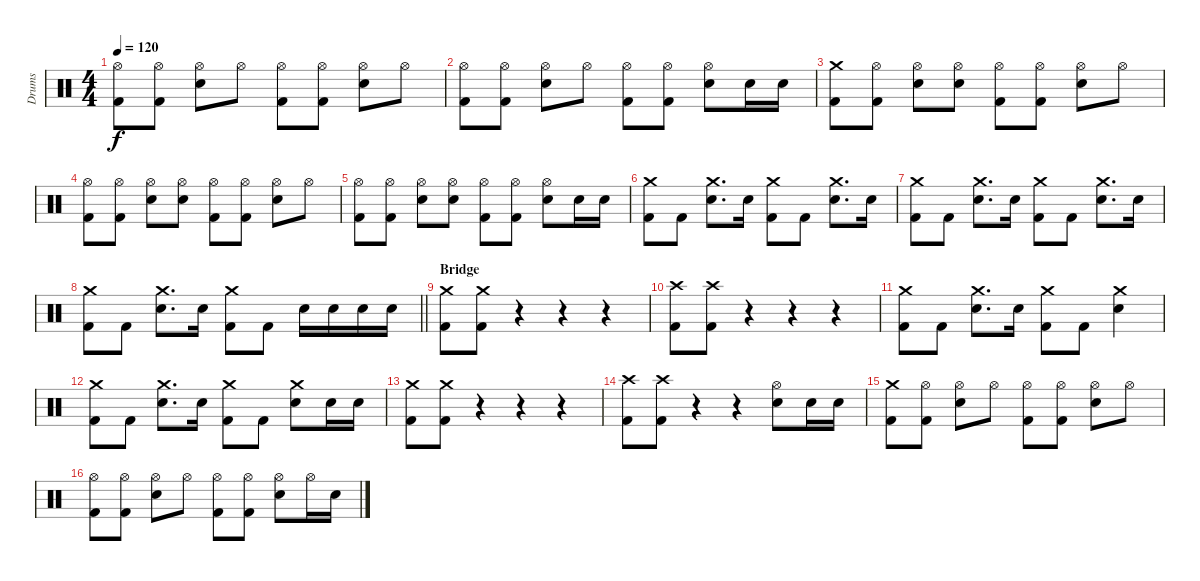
\track ("Drums" "Drums") {instrument percussion}
\staff {score}
\articulation defaults
\ts (4 4)
\tempo 120
\clef neutral
\ks c
("Hi-Hat (open)" "Kick (hit) 2").8{dy f} ("Hi-Hat (open)" "Kick (hit) 2").8 ("Hi-Hat (open)" "Electric Snare (hit)").8 "Hi-Hat (open)".8 ("Hi-Hat (open)" "Kick (hit) 2").8 ("Hi-Hat (open)" "Kick (hit) 2").8 ("Hi-Hat (open)" "Electric Snare (hit)").8 "Hi-Hat (open)".8 |
("Hi-Hat (open)" "Kick (hit) 2").8 ("Hi-Hat (open)" "Kick (hit) 2").8 ("Hi-Hat (open)" "Electric Snare (hit)").8 "Hi-Hat (open)".8 ("Hi-Hat (open)" "Kick (hit) 2").8 ("Hi-Hat (open)" "Kick (hit) 2").8 ("Hi-Hat (open)" "Electric Snare (hit)").8 "Electric Snare (hit)".16 "Electric Snare (hit)".16 |
("Crash medium (hit)" "Kick (hit) 2").8 ("Hi-Hat (open)" "Kick (hit) 2").8 ("Hi-Hat (open)" "Electric Snare (hit)").8 ("Hi-Hat (open)" "Electric Snare (hit)").8 ("Hi-Hat (open)" "Kick (hit) 2").8 ("Hi-Hat (open)" "Kick (hit) 2").8 ("Hi-Hat (open)" "Electric Snare (hit)").8 "Hi-Hat (open)".8 |
("Hi-Hat (open)" "Kick (hit) 2").8 ("Hi-Hat (open)" "Kick (hit) 2").8 ("Hi-Hat (open)" "Electric Snare (hit)").8 ("Hi-Hat (open)" "Electric Snare (hit)").8 ("Hi-Hat (open)" "Kick (hit) 2").8 ("Hi-Hat (open)" "Kick (hit) 2").8 ("Hi-Hat (open)" "Electric Snare (hit)").8 "Hi-Hat (open)".8 |
("Hi-Hat (open)" "Kick (hit) 2").8 ("Hi-Hat (open)" "Kick (hit) 2").8 ("Hi-Hat (open)" "Electric Snare (hit)").8 ("Hi-Hat (open)" "Electric Snare (hit)").8 ("Hi-Hat (open)" "Kick (hit) 2").8 ("Hi-Hat (open)" "Kick (hit) 2").8 ("Hi-Hat (open)" "Electric Snare (hit)").8 "Electric Snare (hit)".16 "Electric Snare (hit)".16 |
("Crash medium (hit)" "Kick (hit) 2").8 "Kick (hit) 2".8 ("Crash medium (hit)" "Electric Snare (hit)").8{d} "Electric Snare (hit)".16 ("Crash medium (hit)" "Kick (hit) 2").8 "Kick (hit) 2".8 ("Crash medium (hit)" "Electric Snare (hit)").8{d} "Electric Snare (hit)".16 |
("Crash medium (hit)" "Kick (hit) 2").8 "Kick (hit) 2".8 ("Crash medium (hit)" "Electric Snare (hit)").8{d} "Electric Snare (hit)".16 ("Crash medium (hit)" "Kick (hit) 2").8 "Kick (hit) 2".8 ("Crash medium (hit)" "Electric Snare (hit)").8{d} "Electric Snare (hit)".16 |
\barLineRight lightlight
("Crash medium (hit)" "Kick (hit) 2").8 "Kick (hit) 2".8 ("Crash medium (hit)" "Electric Snare (hit)").8{d} "Electric Snare (hit)".16 ("Crash medium (hit)" "Kick (hit) 2").8 "Kick (hit) 2".8 "Electric Snare (hit)".16 "Electric Snare (hit)".16 "Electric Snare (hit)".16 "Electric Snare (hit)".16 |
\section ("" "Bridge")
("Crash medium (hit)" "Kick (hit) 2").8 ("Crash medium (hit)" "Kick (hit) 2").8 r.4 r.4 r.4 |
("Crash high (hit)" "Kick (hit) 2").8 ("Crash high (hit)" "Kick (hit) 2").8 r.4 r.4 r.4 |
("Crash medium (hit)" "Kick (hit) 2").8 "Kick (hit) 2".8 ("Crash medium (hit)" "Electric Snare (hit)").8{d} "Electric Snare (hit)".16 ("Crash medium (hit)" "Kick (hit) 2").8 "Kick (hit) 2".8 ("Crash medium (hit)" "Electric Snare (hit)").4 |
("Crash medium (hit)" "Kick (hit) 2").8 "Kick (hit) 2".8 ("Crash medium (hit)" "Electric Snare (hit)").8{d} "Electric Snare (hit)".16 ("Crash medium (hit)" "Kick (hit) 2").8 "Kick (hit) 2".8 ("Crash medium (hit)" "Electric Snare (hit)").8 "Electric Snare (hit)".16 "Electric Snare (hit)".16 |
("Crash medium (hit)" "Kick (hit) 2").8 ("Crash medium (hit)" "Kick (hit) 2").8 r.4 r.4 r.4 |
("Crash high (hit)" "Kick (hit) 2").8 ("Crash high (hit)" "Kick (hit) 2").8 r.4 r.4 ("Hi-Hat (open)" "Electric Snare (hit)").8 "Electric Snare (hit)".16 "Electric Snare (hit)".16 |
("Crash medium (hit)" "Kick (hit) 2").8 ("Hi-Hat (open)" "Kick (hit) 2").8 ("Hi-Hat (open)" "Electric Snare (hit)").8 "Hi-Hat (open)".8 ("Hi-Hat (open)" "Kick (hit) 2").8 ("Hi-Hat (open)" "Kick (hit) 2").8 ("Hi-Hat (open)" "Electric Snare (hit)").8 "Hi-Hat (open)".8 |
("Hi-Hat (open)" "Kick (hit) 2").8 ("Hi-Hat (open)" "Kick (hit) 2").8 ("Hi-Hat (open)" "Electric Snare (hit)").8 "Hi-Hat (open)".8 ("Hi-Hat (open)" "Kick (hit) 2").8 ("Hi-Hat (open)" "Kick (hit) 2").8 ("Hi-Hat (open)" "Electric Snare (hit)").8 "Hi-Hat (open)".16 "Electric Snare (hit)".16
